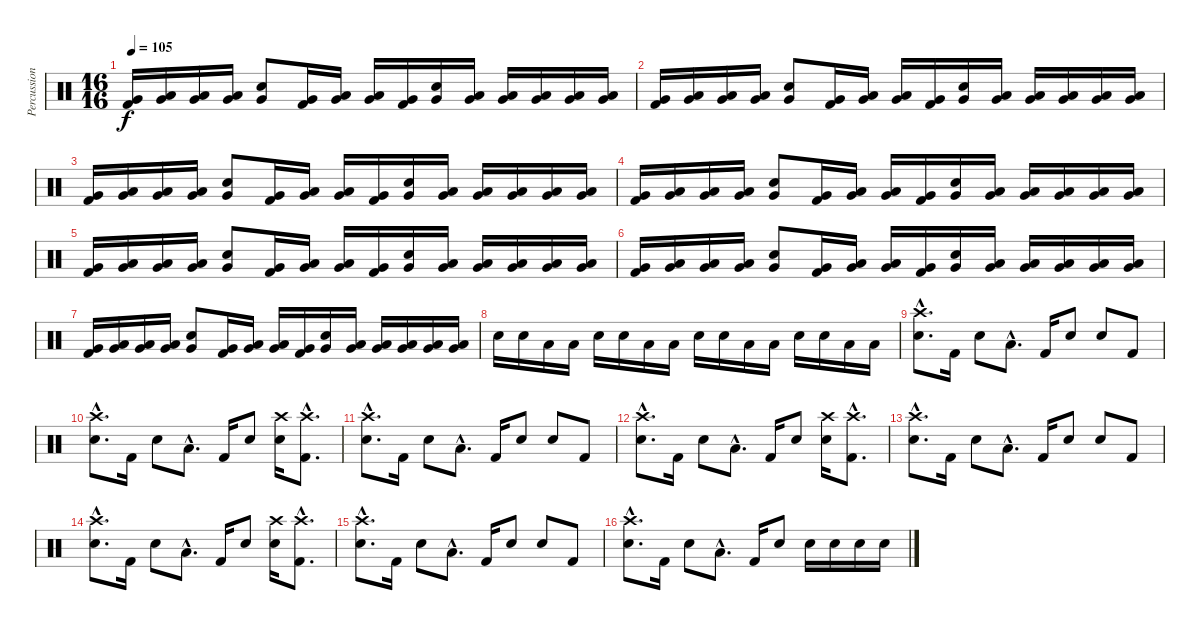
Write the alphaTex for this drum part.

\track ("Percussion" "Percussion") {instrument percussion}
\staff {score}
\articulation defaults
\ts (16 16)
\tempo 105
\clef neutral
\ks c
("Kick (hit) 2" "Very Low Tom (hit)").16{dy f} ("Low Floor Tom (hit)" "Very Low Tom (hit)").16 ("Low Floor Tom (hit)" "Very Low Tom (hit)").16 ("Low Floor Tom (hit)" "Very Low Tom (hit)").16 ("Snare (hit) 2" "Very Low Tom (hit)").8 ("Kick (hit) 2" "Very Low Tom (hit)").16 ("Low Floor Tom (hit)" "Very Low Tom (hit)").16 ("Low Floor Tom (hit)" "Very Low Tom (hit)").16 ("Kick (hit) 2" "Very Low Tom (hit)").16 ("Snare (hit) 2" "Very Low Tom (hit)").16 ("Low Floor Tom (hit)" "Very Low Tom (hit)").16 ("Low Floor Tom (hit)" "Very Low Tom (hit)").16 ("Low Floor Tom (hit)" "Very Low Tom (hit)").16 ("Low Floor Tom (hit)" "Very Low Tom (hit)").16 ("Low Floor Tom (hit)" "Very Low Tom (hit)").16 |
("Kick (hit) 2" "Very Low Tom (hit)").16 ("Low Floor Tom (hit)" "Very Low Tom (hit)").16 ("Low Floor Tom (hit)" "Very Low Tom (hit)").16 ("Low Floor Tom (hit)" "Very Low Tom (hit)").16 ("Snare (hit) 2" "Very Low Tom (hit)").8 ("Kick (hit) 2" "Very Low Tom (hit)").16 ("Low Floor Tom (hit)" "Very Low Tom (hit)").16 ("Low Floor Tom (hit)" "Very Low Tom (hit)").16 ("Kick (hit) 2" "Very Low Tom (hit)").16 ("Snare (hit) 2" "Very Low Tom (hit)").16 ("Low Floor Tom (hit)" "Very Low Tom (hit)").16 ("Low Floor Tom (hit)" "Very Low Tom (hit)").16 ("Low Floor Tom (hit)" "Very Low Tom (hit)").16 ("Low Floor Tom (hit)" "Very Low Tom (hit)").16 ("Low Floor Tom (hit)" "Very Low Tom (hit)").16 |
("Kick (hit) 2" "Very Low Tom (hit)").16 ("Low Floor Tom (hit)" "Very Low Tom (hit)").16 ("Low Floor Tom (hit)" "Very Low Tom (hit)").16 ("Low Floor Tom (hit)" "Very Low Tom (hit)").16 ("Snare (hit) 2" "Very Low Tom (hit)").8 ("Kick (hit) 2" "Very Low Tom (hit)").16 ("Low Floor Tom (hit)" "Very Low Tom (hit)").16 ("Low Floor Tom (hit)" "Very Low Tom (hit)").16 ("Kick (hit) 2" "Very Low Tom (hit)").16 ("Snare (hit) 2" "Very Low Tom (hit)").16 ("Low Floor Tom (hit)" "Very Low Tom (hit)").16 ("Low Floor Tom (hit)" "Very Low Tom (hit)").16 ("Low Floor Tom (hit)" "Very Low Tom (hit)").16 ("Low Floor Tom (hit)" "Very Low Tom (hit)").16 ("Low Floor Tom (hit)" "Very Low Tom (hit)").16 |
("Kick (hit) 2" "Very Low Tom (hit)").16 ("Low Floor Tom (hit)" "Very Low Tom (hit)").16 ("Low Floor Tom (hit)" "Very Low Tom (hit)").16 ("Low Floor Tom (hit)" "Very Low Tom (hit)").16 ("Snare (hit) 2" "Very Low Tom (hit)").8 ("Kick (hit) 2" "Very Low Tom (hit)").16 ("Low Floor Tom (hit)" "Very Low Tom (hit)").16 ("Low Floor Tom (hit)" "Very Low Tom (hit)").16 ("Kick (hit) 2" "Very Low Tom (hit)").16 ("Snare (hit) 2" "Very Low Tom (hit)").16 ("Low Floor Tom (hit)" "Very Low Tom (hit)").16 ("Low Floor Tom (hit)" "Very Low Tom (hit)").16 ("Low Floor Tom (hit)" "Very Low Tom (hit)").16 ("Low Floor Tom (hit)" "Very Low Tom (hit)").16 ("Low Floor Tom (hit)" "Very Low Tom (hit)").16 |
("Kick (hit) 2" "Very Low Tom (hit)").16 ("Low Floor Tom (hit)" "Very Low Tom (hit)").16 ("Low Floor Tom (hit)" "Very Low Tom (hit)").16 ("Low Floor Tom (hit)" "Very Low Tom (hit)").16 ("Snare (hit) 2" "Very Low Tom (hit)").8 ("Kick (hit) 2" "Very Low Tom (hit)").16 ("Low Floor Tom (hit)" "Very Low Tom (hit)").16 ("Low Floor Tom (hit)" "Very Low Tom (hit)").16 ("Kick (hit) 2" "Very Low Tom (hit)").16 ("Snare (hit) 2" "Very Low Tom (hit)").16 ("Low Floor Tom (hit)" "Very Low Tom (hit)").16 ("Low Floor Tom (hit)" "Very Low Tom (hit)").16 ("Low Floor Tom (hit)" "Very Low Tom (hit)").16 ("Low Floor Tom (hit)" "Very Low Tom (hit)").16 ("Low Floor Tom (hit)" "Very Low Tom (hit)").16 |
("Kick (hit) 2" "Very Low Tom (hit)").16 ("Low Floor Tom (hit)" "Very Low Tom (hit)").16 ("Low Floor Tom (hit)" "Very Low Tom (hit)").16 ("Low Floor Tom (hit)" "Very Low Tom (hit)").16 ("Snare (hit) 2" "Very Low Tom (hit)").8 ("Kick (hit) 2" "Very Low Tom (hit)").16 ("Low Floor Tom (hit)" "Very Low Tom (hit)").16 ("Low Floor Tom (hit)" "Very Low Tom (hit)").16 ("Kick (hit) 2" "Very Low Tom (hit)").16 ("Snare (hit) 2" "Very Low Tom (hit)").16 ("Low Floor Tom (hit)" "Very Low Tom (hit)").16 ("Low Floor Tom (hit)" "Very Low Tom (hit)").16 ("Low Floor Tom (hit)" "Very Low Tom (hit)").16 ("Low Floor Tom (hit)" "Very Low Tom (hit)").16 ("Low Floor Tom (hit)" "Very Low Tom (hit)").16 |
("Kick (hit) 2" "Very Low Tom (hit)").16 ("Low Floor Tom (hit)" "Very Low Tom (hit)").16 ("Low Floor Tom (hit)" "Very Low Tom (hit)").16 ("Low Floor Tom (hit)" "Very Low Tom (hit)").16 ("Snare (hit) 2" "Very Low Tom (hit)").8 ("Kick (hit) 2" "Very Low Tom (hit)").16 ("Low Floor Tom (hit)" "Very Low Tom (hit)").16 ("Low Floor Tom (hit)" "Very Low Tom (hit)").16 ("Kick (hit) 2" "Very Low Tom (hit)").16 ("Snare (hit) 2" "Very Low Tom (hit)").16 ("Low Floor Tom (hit)" "Very Low Tom (hit)").16 ("Low Floor Tom (hit)" "Very Low Tom (hit)").16 ("Low Floor Tom (hit)" "Very Low Tom (hit)").16 ("Low Floor Tom (hit)" "Very Low Tom (hit)").16 ("Low Floor Tom (hit)" "Very Low Tom (hit)").16 |
"Electric Snare (hit)".16 "Electric Snare (hit)".16 "Low Floor Tom (hit)".16 "Low Floor Tom (hit)".16 "Snare (hit) 2".16 "Snare (hit) 2".16 "Low Floor Tom (hit)".16 "Low Floor Tom (hit)".16 "Electric Snare (hit)".16 "Electric Snare (hit)".16 "Low Floor Tom (hit)".16 "Low Floor Tom (hit)".16 "Snare (hit) 2".16 "Snare (hit) 2".16 "Low Floor Tom (hit)".16 "Low Floor Tom (hit)".16 |
("Snare (hit) 2"{hac} "Crash high (hit)"{hac}).8{d} "Kick (hit) 2".16 "Snare (hit) 2".8 "Low Floor Tom (hit)"{hac}.8{d} "Kick (hit) 2".16 "Snare (hit) 2".8 "Snare (hit) 2".8 "Kick (hit) 2".8 |
("Snare (hit) 2"{hac} "Crash high (hit)"{hac}).8{d} "Kick (hit) 2".16 "Snare (hit) 2".8 "Low Floor Tom (hit)"{hac}.8{d} "Kick (hit) 2".16 "Snare (hit) 2".8 ("Snare (hit) 2" "Crash high (hit)").16 ("Kick (hit) 2"{hac} "Crash high (hit)"{hac}).8{d} |
("Snare (hit) 2"{hac} "Crash high (hit)"{hac}).8{d} "Kick (hit) 2".16 "Snare (hit) 2".8 "Low Floor Tom (hit)"{hac}.8{d} "Kick (hit) 2".16 "Snare (hit) 2".8 "Snare (hit) 2".8 "Kick (hit) 2".8 |
("Snare (hit) 2"{hac} "Crash high (hit)"{hac}).8{d} "Kick (hit) 2".16 "Snare (hit) 2".8 "Low Floor Tom (hit)"{hac}.8{d} "Kick (hit) 2".16 "Snare (hit) 2".8 ("Snare (hit) 2" "Crash high (hit)").16 ("Kick (hit) 2"{hac} "Crash high (hit)"{hac}).8{d} |
("Snare (hit) 2"{hac} "Crash high (hit)"{hac}).8{d} "Kick (hit) 2".16 "Snare (hit) 2".8 "Low Floor Tom (hit)"{hac}.8{d} "Kick (hit) 2".16 "Snare (hit) 2".8 "Snare (hit) 2".8 "Kick (hit) 2".8 |
("Snare (hit) 2"{hac} "Crash high (hit)"{hac}).8{d} "Kick (hit) 2".16 "Snare (hit) 2".8 "Low Floor Tom (hit)"{hac}.8{d} "Kick (hit) 2".16 "Snare (hit) 2".8 ("Snare (hit) 2" "Crash high (hit)").16 ("Kick (hit) 2"{hac} "Crash high (hit)"{hac}).8{d} |
("Snare (hit) 2"{hac} "Crash high (hit)"{hac}).8{d} "Kick (hit) 2".16 "Snare (hit) 2".8 "Low Floor Tom (hit)"{hac}.8{d} "Kick (hit) 2".16 "Snare (hit) 2".8 "Snare (hit) 2".8 "Kick (hit) 2".8 |
("Snare (hit) 2"{hac} "Crash high (hit)"{hac}).8{d} "Kick (hit) 2".16 "Snare (hit) 2".8 "Low Floor Tom (hit)"{hac}.8{d} "Kick (hit) 2".16 "Snare (hit) 2".8 "Electric Snare (hit)".16 "Electric Snare (hit)".16 "Snare (hit) 2".16 "Snare (hit) 2".16
